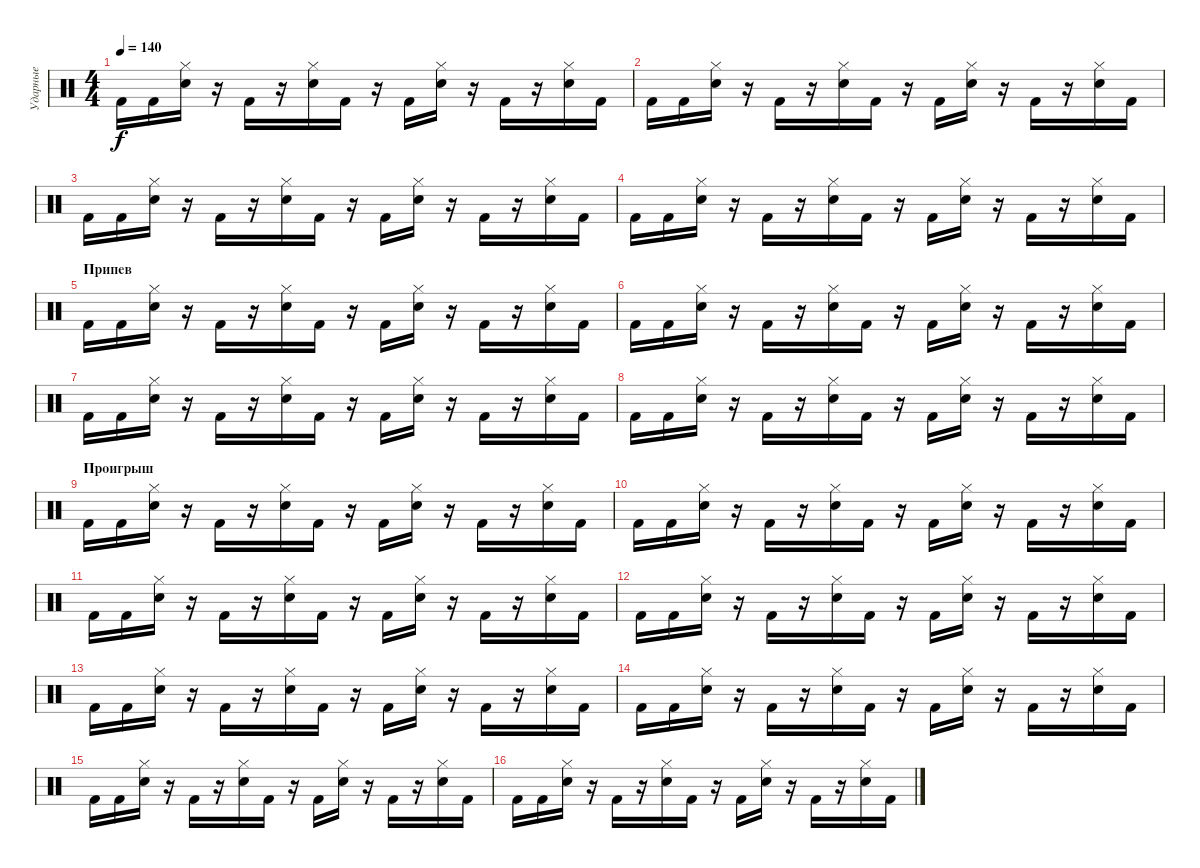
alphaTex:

\track ("Ударные" "Ударные") {instrument percussion}
\staff {score}
\articulation defaults
\ts (4 4)
\tempo 140
\clef neutral
\ks c "Kick (hit) 2".16{dy f} "Kick (hit) 2".16
("Snare (hit) 2" "Hi-Hat (closed)").16 r.16 "Kick (hit) 2".16 r.16 ("Snare (hit) 2" "Hi-Hat (closed)").16 "Kick (hit) 2".16 r.16 "Kick (hit) 2".16 ("Snare (hit) 2" "Hi-Hat (closed)").16 r.16 "Kick (hit) 2".16 r.16 ("Snare (hit) 2" "Hi-Hat (closed)").16 "Kick (hit) 2".16 |
"Kick (hit) 2".16 "Kick (hit) 2".16 ("Snare (hit) 2" "Hi-Hat (closed)").16 r.16 "Kick (hit) 2".16 r.16 ("Snare (hit) 2" "Hi-Hat (closed)").16 "Kick (hit) 2".16 r.16 "Kick (hit) 2".16 ("Snare (hit) 2" "Hi-Hat (closed)").16 r.16 "Kick (hit) 2".16 r.16 ("Snare (hit) 2" "Hi-Hat (closed)").16 "Kick (hit) 2".16 |
"Kick (hit) 2".16 "Kick (hit) 2".16 ("Snare (hit) 2" "Hi-Hat (closed)").16 r.16 "Kick (hit) 2".16 r.16 ("Snare (hit) 2" "Hi-Hat (closed)").16 "Kick (hit) 2".16 r.16 "Kick (hit) 2".16 ("Snare (hit) 2" "Hi-Hat (closed)").16 r.16 "Kick (hit) 2".16 r.16 ("Snare (hit) 2" "Hi-Hat (closed)").16 "Kick (hit) 2".16 |
"Kick (hit) 2".16 "Kick (hit) 2".16 ("Snare (hit) 2" "Hi-Hat (closed)").16 r.16 "Kick (hit) 2".16 r.16 ("Snare (hit) 2" "Hi-Hat (closed)").16 "Kick (hit) 2".16 r.16 "Kick (hit) 2".16 ("Snare (hit) 2" "Hi-Hat (closed)").16 r.16 "Kick (hit) 2".16 r.16 ("Snare (hit) 2" "Hi-Hat (closed)").16 "Kick (hit) 2".16 |
\section ("" "Припев")
"Kick (hit) 2".16 "Kick (hit) 2".16 ("Snare (hit) 2" "Hi-Hat (closed)").16 r.16 "Kick (hit) 2".16 r.16 ("Snare (hit) 2" "Hi-Hat (closed)").16 "Kick (hit) 2".16 r.16 "Kick (hit) 2".16 ("Snare (hit) 2" "Hi-Hat (closed)").16 r.16 "Kick (hit) 2".16 r.16 ("Snare (hit) 2" "Hi-Hat (closed)").16 "Kick (hit) 2".16 |
"Kick (hit) 2".16 "Kick (hit) 2".16 ("Snare (hit) 2" "Hi-Hat (closed)").16 r.16 "Kick (hit) 2".16 r.16 ("Snare (hit) 2" "Hi-Hat (closed)").16 "Kick (hit) 2".16 r.16 "Kick (hit) 2".16 ("Snare (hit) 2" "Hi-Hat (closed)").16 r.16 "Kick (hit) 2".16 r.16 ("Snare (hit) 2" "Hi-Hat (closed)").16 "Kick (hit) 2".16 |
"Kick (hit) 2".16 "Kick (hit) 2".16 ("Snare (hit) 2" "Hi-Hat (closed)").16 r.16 "Kick (hit) 2".16 r.16 ("Snare (hit) 2" "Hi-Hat (closed)").16 "Kick (hit) 2".16 r.16 "Kick (hit) 2".16 ("Snare (hit) 2" "Hi-Hat (closed)").16 r.16 "Kick (hit) 2".16 r.16 ("Snare (hit) 2" "Hi-Hat (closed)").16 "Kick (hit) 2".16 |
"Kick (hit) 2".16{volume 14} "Kick (hit) 2".16 ("Snare (hit) 2" "Hi-Hat (closed)").16 r.16 "Kick (hit) 2".16 r.16 ("Snare (hit) 2" "Hi-Hat (closed)").16 "Kick (hit) 2".16 r.16 "Kick (hit) 2".16 ("Snare (hit) 2" "Hi-Hat (closed)").16 r.16 "Kick (hit) 2".16 r.16 ("Snare (hit) 2" "Hi-Hat (closed)").16 "Kick (hit) 2".16 |
\section ("" "Проигрыш")
"Kick (hit) 2".16{volume 16} "Kick (hit) 2".16 ("Snare (hit) 2" "Hi-Hat (closed)").16 r.16 "Kick (hit) 2".16 r.16 ("Snare (hit) 2" "Hi-Hat (closed)").16 "Kick (hit) 2".16 r.16 "Kick (hit) 2".16 ("Snare (hit) 2" "Hi-Hat (closed)").16 r.16 "Kick (hit) 2".16 r.16 ("Snare (hit) 2" "Hi-Hat (closed)").16 "Kick (hit) 2".16 |
"Kick (hit) 2".16 "Kick (hit) 2".16 ("Snare (hit) 2" "Hi-Hat (closed)").16 r.16 "Kick (hit) 2".16 r.16 ("Snare (hit) 2" "Hi-Hat (closed)").16 "Kick (hit) 2".16 r.16 "Kick (hit) 2".16 ("Snare (hit) 2" "Hi-Hat (closed)").16 r.16 "Kick (hit) 2".16 r.16 ("Snare (hit) 2" "Hi-Hat (closed)").16 "Kick (hit) 2".16 |
"Kick (hit) 2".16 "Kick (hit) 2".16 ("Snare (hit) 2" "Hi-Hat (closed)").16 r.16 "Kick (hit) 2".16 r.16 ("Snare (hit) 2" "Hi-Hat (closed)").16 "Kick (hit) 2".16 r.16 "Kick (hit) 2".16 ("Snare (hit) 2" "Hi-Hat (closed)").16 r.16 "Kick (hit) 2".16 r.16 ("Snare (hit) 2" "Hi-Hat (closed)").16 "Kick (hit) 2".16 |
"Kick (hit) 2".16 "Kick (hit) 2".16 ("Snare (hit) 2" "Hi-Hat (closed)").16 r.16 "Kick (hit) 2".16 r.16 ("Snare (hit) 2" "Hi-Hat (closed)").16 "Kick (hit) 2".16 r.16 "Kick (hit) 2".16 ("Snare (hit) 2" "Hi-Hat (closed)").16 r.16 "Kick (hit) 2".16 r.16 ("Snare (hit) 2" "Hi-Hat (closed)").16 "Kick (hit) 2".16 |
"Kick (hit) 2".16 "Kick (hit) 2".16 ("Snare (hit) 2" "Hi-Hat (closed)").16 r.16 "Kick (hit) 2".16 r.16 ("Snare (hit) 2" "Hi-Hat (closed)").16 "Kick (hit) 2".16 r.16 "Kick (hit) 2".16 ("Snare (hit) 2" "Hi-Hat (closed)").16 r.16 "Kick (hit) 2".16 r.16 ("Snare (hit) 2" "Hi-Hat (closed)").16 "Kick (hit) 2".16 |
"Kick (hit) 2".16 "Kick (hit) 2".16 ("Snare (hit) 2" "Hi-Hat (closed)").16 r.16 "Kick (hit) 2".16 r.16 ("Snare (hit) 2" "Hi-Hat (closed)").16 "Kick (hit) 2".16 r.16 "Kick (hit) 2".16 ("Snare (hit) 2" "Hi-Hat (closed)").16 r.16 "Kick (hit) 2".16 r.16 ("Snare (hit) 2" "Hi-Hat (closed)").16 "Kick (hit) 2".16 |
"Kick (hit) 2".16 "Kick (hit) 2".16 ("Snare (hit) 2" "Hi-Hat (closed)").16 r.16 "Kick (hit) 2".16 r.16 ("Snare (hit) 2" "Hi-Hat (closed)").16 "Kick (hit) 2".16 r.16 "Kick (hit) 2".16 ("Snare (hit) 2" "Hi-Hat (closed)").16 r.16 "Kick (hit) 2".16 r.16 ("Snare (hit) 2" "Hi-Hat (closed)").16 "Kick (hit) 2".16 |
"Kick (hit) 2".16 "Kick (hit) 2".16 ("Snare (hit) 2" "Hi-Hat (closed)").16 r.16 "Kick (hit) 2".16 r.16 ("Snare (hit) 2" "Hi-Hat (closed)").16 "Kick (hit) 2".16 r.16 "Kick (hit) 2".16 ("Snare (hit) 2" "Hi-Hat (closed)").16 r.16 "Kick (hit) 2".16 r.16 ("Snare (hit) 2" "Hi-Hat (closed)").16 "Kick (hit) 2".16
